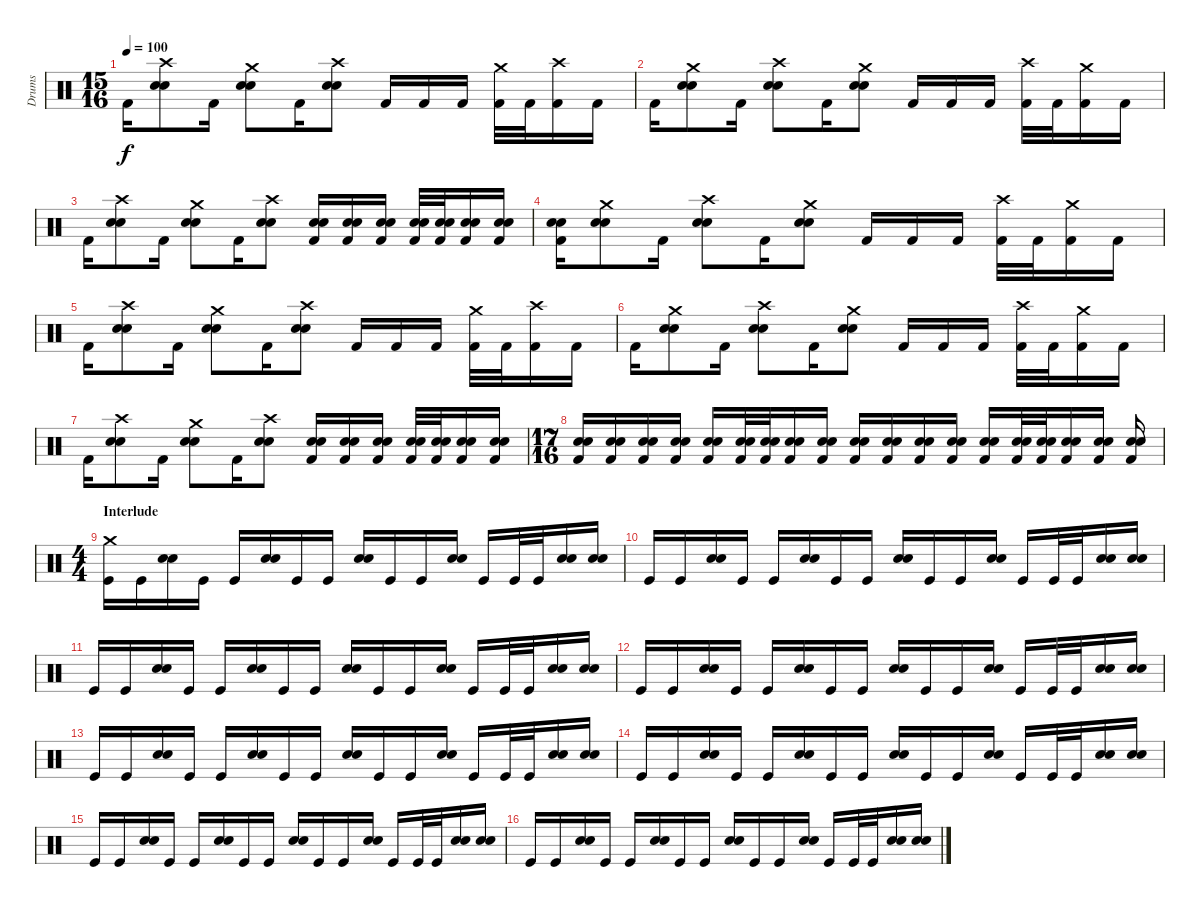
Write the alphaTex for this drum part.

\track ("Drums" "Drums") {instrument percussion}
\staff {score}
\articulation defaults
\ts (15 16)
\tempo 100
\clef neutral
\ks c "Kick (hit) 2".16{dy f}
("Crash high (hit)" "Snare (hit) 2" "Electric Snare (hit)").8 "Kick (hit) 2".16 ("Crash medium (hit)" "Snare (hit) 2" "Electric Snare (hit)").8 "Kick (hit) 2".16 ("Crash high (hit)" "Snare (hit) 2" "Electric Snare (hit)").8 "Kick (hit) 2".16 "Kick (hit) 2".16 "Kick (hit) 2".16 ("Crash medium (hit)" "Kick (hit) 2").32 "Kick (hit) 2".32 ("Crash high (hit)" "Kick (hit) 2").16 "Kick (hit) 2".16 |
"Kick (hit) 2".16 ("Crash medium (hit)" "Snare (hit) 2" "Electric Snare (hit)").8 "Kick (hit) 2".16 ("Crash high (hit)" "Snare (hit) 2" "Electric Snare (hit)").8 "Kick (hit) 2".16 ("Crash medium (hit)" "Snare (hit) 2" "Electric Snare (hit)").8 "Kick (hit) 2".16 "Kick (hit) 2".16 "Kick (hit) 2".16 ("Crash high (hit)" "Kick (hit) 2").32 "Kick (hit) 2".32 ("Crash medium (hit)" "Kick (hit) 2").16 "Kick (hit) 2".16 |
"Kick (hit) 2".16 ("Crash high (hit)" "Snare (hit) 2" "Electric Snare (hit)").8 "Kick (hit) 2".16 ("Crash medium (hit)" "Snare (hit) 2" "Electric Snare (hit)").8 "Kick (hit) 2".16 ("Crash high (hit)" "Snare (hit) 2" "Electric Snare (hit)").8 ("Snare (hit) 2" "Electric Snare (hit)" "Kick (hit) 2").16 ("Snare (hit) 2" "Electric Snare (hit)" "Kick (hit) 2").16 ("Snare (hit) 2" "Electric Snare (hit)" "Kick (hit) 2").16 ("Snare (hit) 2" "Electric Snare (hit)" "Kick (hit) 2").32 ("Snare (hit) 2" "Electric Snare (hit)" "Kick (hit) 2").32 ("Snare (hit) 2" "Electric Snare (hit)" "Kick (hit) 2").16 ("Snare (hit) 2" "Electric Snare (hit)" "Kick (hit) 2").16 |
("Snare (hit) 2" "Electric Snare (hit)" "Kick (hit) 2").16 ("Crash medium (hit)" "Snare (hit) 2" "Electric Snare (hit)").8 "Kick (hit) 2".16 ("Crash high (hit)" "Snare (hit) 2" "Electric Snare (hit)").8 "Kick (hit) 2".16 ("Crash medium (hit)" "Snare (hit) 2" "Electric Snare (hit)").8 "Kick (hit) 2".16 "Kick (hit) 2".16 "Kick (hit) 2".16 ("Crash high (hit)" "Kick (hit) 2").32 "Kick (hit) 2".32 ("Crash medium (hit)" "Kick (hit) 2").16 "Kick (hit) 2".16 |
"Kick (hit) 2".16 ("Crash high (hit)" "Snare (hit) 2" "Electric Snare (hit)").8 "Kick (hit) 2".16 ("Crash medium (hit)" "Snare (hit) 2" "Electric Snare (hit)").8 "Kick (hit) 2".16 ("Crash high (hit)" "Snare (hit) 2" "Electric Snare (hit)").8 "Kick (hit) 2".16 "Kick (hit) 2".16 "Kick (hit) 2".16 ("Crash medium (hit)" "Kick (hit) 2").32 "Kick (hit) 2".32 ("Crash high (hit)" "Kick (hit) 2").16 "Kick (hit) 2".16 |
"Kick (hit) 2".16 ("Crash medium (hit)" "Snare (hit) 2" "Electric Snare (hit)").8 "Kick (hit) 2".16 ("Crash high (hit)" "Snare (hit) 2" "Electric Snare (hit)").8 "Kick (hit) 2".16 ("Crash medium (hit)" "Snare (hit) 2" "Electric Snare (hit)").8 "Kick (hit) 2".16 "Kick (hit) 2".16 "Kick (hit) 2".16 ("Crash high (hit)" "Kick (hit) 2").32 "Kick (hit) 2".32 ("Crash medium (hit)" "Kick (hit) 2").16 "Kick (hit) 2".16 |
"Kick (hit) 2".16 ("Crash high (hit)" "Snare (hit) 2" "Electric Snare (hit)").8 "Kick (hit) 2".16 ("Crash medium (hit)" "Snare (hit) 2" "Electric Snare (hit)").8 "Kick (hit) 2".16 ("Crash high (hit)" "Snare (hit) 2" "Electric Snare (hit)").8 ("Snare (hit) 2" "Electric Snare (hit)" "Kick (hit) 2").16 ("Snare (hit) 2" "Electric Snare (hit)" "Kick (hit) 2").16 ("Snare (hit) 2" "Electric Snare (hit)" "Kick (hit) 2").16 ("Snare (hit) 2" "Electric Snare (hit)" "Kick (hit) 2").32 ("Snare (hit) 2" "Electric Snare (hit)" "Kick (hit) 2").32 ("Snare (hit) 2" "Electric Snare (hit)" "Kick (hit) 2").16 ("Snare (hit) 2" "Electric Snare (hit)" "Kick (hit) 2").16 |
\ts (17 16)
("Snare (hit) 2" "Electric Snare (hit)" "Kick (hit) 2").16 ("Snare (hit) 2" "Electric Snare (hit)" "Kick (hit) 2").16 ("Snare (hit) 2" "Electric Snare (hit)" "Kick (hit) 2").16 ("Snare (hit) 2" "Electric Snare (hit)" "Kick (hit) 2").16 ("Snare (hit) 2" "Electric Snare (hit)" "Kick (hit) 2").16 ("Snare (hit) 2" "Electric Snare (hit)" "Kick (hit) 2").32 ("Snare (hit) 2" "Electric Snare (hit)" "Kick (hit) 2").32 ("Snare (hit) 2" "Electric Snare (hit)" "Kick (hit) 2").16 ("Snare (hit) 2" "Electric Snare (hit)" "Kick (hit) 2").16 ("Snare (hit) 2" "Electric Snare (hit)" "Kick (hit) 2").16 ("Snare (hit) 2" "Electric Snare (hit)" "Kick (hit) 2").16 ("Snare (hit) 2" "Electric Snare (hit)" "Kick (hit) 2").16 ("Snare (hit) 2" "Electric Snare (hit)" "Kick (hit) 2").16 ("Snare (hit) 2" "Electric Snare (hit)" "Kick (hit) 2").16 ("Snare (hit) 2" "Electric Snare (hit)" "Kick (hit) 2").32 ("Snare (hit) 2" "Electric Snare (hit)" "Kick (hit) 2").32 ("Snare (hit) 2" "Electric Snare (hit)" "Kick (hit) 2").16 ("Snare (hit) 2" "Electric Snare (hit)" "Kick (hit) 2").16 ("Snare (hit) 2" "Electric Snare (hit)" "Kick (hit) 2").16 |
\ts (4 4)
\section ("" "Interlude")
("Crash medium (hit)" "Kick (hit)").16 "Kick (hit)".16 ("Snare (hit) 2" "Electric Snare (hit)").16 "Kick (hit)".16 "Kick (hit)".16 ("Snare (hit) 2" "Electric Snare (hit)").16 "Kick (hit)".16 "Kick (hit)".16 ("Snare (hit) 2" "Electric Snare (hit)").16 "Kick (hit)".16 "Kick (hit)".16 ("Snare (hit) 2" "Electric Snare (hit)").16 "Kick (hit)".16 "Kick (hit)".32 "Kick (hit)".32 ("Snare (hit) 2" "Electric Snare (hit)").16 ("Snare (hit) 2" "Electric Snare (hit)").16 |
"Kick (hit)".16 "Kick (hit)".16 ("Snare (hit) 2" "Electric Snare (hit)").16 "Kick (hit)".16 "Kick (hit)".16 ("Snare (hit) 2" "Electric Snare (hit)").16 "Kick (hit)".16 "Kick (hit)".16 ("Snare (hit) 2" "Electric Snare (hit)").16 "Kick (hit)".16 "Kick (hit)".16 ("Snare (hit) 2" "Electric Snare (hit)").16 "Kick (hit)".16 "Kick (hit)".32 "Kick (hit)".32 ("Snare (hit) 2" "Electric Snare (hit)").16 ("Snare (hit) 2" "Electric Snare (hit)").16 |
"Kick (hit)".16 "Kick (hit)".16 ("Snare (hit) 2" "Electric Snare (hit)").16 "Kick (hit)".16 "Kick (hit)".16 ("Snare (hit) 2" "Electric Snare (hit)").16 "Kick (hit)".16 "Kick (hit)".16 ("Snare (hit) 2" "Electric Snare (hit)").16 "Kick (hit)".16 "Kick (hit)".16 ("Snare (hit) 2" "Electric Snare (hit)").16 "Kick (hit)".16 "Kick (hit)".32 "Kick (hit)".32 ("Snare (hit) 2" "Electric Snare (hit)").16 ("Snare (hit) 2" "Electric Snare (hit)").16 |
"Kick (hit)".16 "Kick (hit)".16 ("Snare (hit) 2" "Electric Snare (hit)").16 "Kick (hit)".16 "Kick (hit)".16 ("Snare (hit) 2" "Electric Snare (hit)").16 "Kick (hit)".16 "Kick (hit)".16 ("Snare (hit) 2" "Electric Snare (hit)").16 "Kick (hit)".16 "Kick (hit)".16 ("Snare (hit) 2" "Electric Snare (hit)").16 "Kick (hit)".16 "Kick (hit)".32 "Kick (hit)".32 ("Snare (hit) 2" "Electric Snare (hit)").16 ("Snare (hit) 2" "Electric Snare (hit)").16 |
"Kick (hit)".16 "Kick (hit)".16 ("Snare (hit) 2" "Electric Snare (hit)").16 "Kick (hit)".16 "Kick (hit)".16 ("Snare (hit) 2" "Electric Snare (hit)").16 "Kick (hit)".16 "Kick (hit)".16 ("Snare (hit) 2" "Electric Snare (hit)").16 "Kick (hit)".16 "Kick (hit)".16 ("Snare (hit) 2" "Electric Snare (hit)").16 "Kick (hit)".16 "Kick (hit)".32 "Kick (hit)".32 ("Snare (hit) 2" "Electric Snare (hit)").16 ("Snare (hit) 2" "Electric Snare (hit)").16 |
"Kick (hit)".16 "Kick (hit)".16 ("Snare (hit) 2" "Electric Snare (hit)").16 "Kick (hit)".16 "Kick (hit)".16 ("Snare (hit) 2" "Electric Snare (hit)").16 "Kick (hit)".16 "Kick (hit)".16 ("Snare (hit) 2" "Electric Snare (hit)").16 "Kick (hit)".16 "Kick (hit)".16 ("Snare (hit) 2" "Electric Snare (hit)").16 "Kick (hit)".16 "Kick (hit)".32 "Kick (hit)".32 ("Snare (hit) 2" "Electric Snare (hit)").16 ("Snare (hit) 2" "Electric Snare (hit)").16 |
"Kick (hit)".16 "Kick (hit)".16 ("Snare (hit) 2" "Electric Snare (hit)").16 "Kick (hit)".16 "Kick (hit)".16 ("Snare (hit) 2" "Electric Snare (hit)").16 "Kick (hit)".16 "Kick (hit)".16 ("Snare (hit) 2" "Electric Snare (hit)").16 "Kick (hit)".16 "Kick (hit)".16 ("Snare (hit) 2" "Electric Snare (hit)").16 "Kick (hit)".16 "Kick (hit)".32 "Kick (hit)".32 ("Snare (hit) 2" "Electric Snare (hit)").16 ("Snare (hit) 2" "Electric Snare (hit)").16 |
"Kick (hit)".16 "Kick (hit)".16 ("Snare (hit) 2" "Electric Snare (hit)").16 "Kick (hit)".16 "Kick (hit)".16 ("Snare (hit) 2" "Electric Snare (hit)").16 "Kick (hit)".16 "Kick (hit)".16 ("Snare (hit) 2" "Electric Snare (hit)").16 "Kick (hit)".16 "Kick (hit)".16 ("Snare (hit) 2" "Electric Snare (hit)").16 "Kick (hit)".16 "Kick (hit)".32 "Kick (hit)".32 ("Snare (hit) 2" "Electric Snare (hit)").16 ("Snare (hit) 2" "Electric Snare (hit)").16
